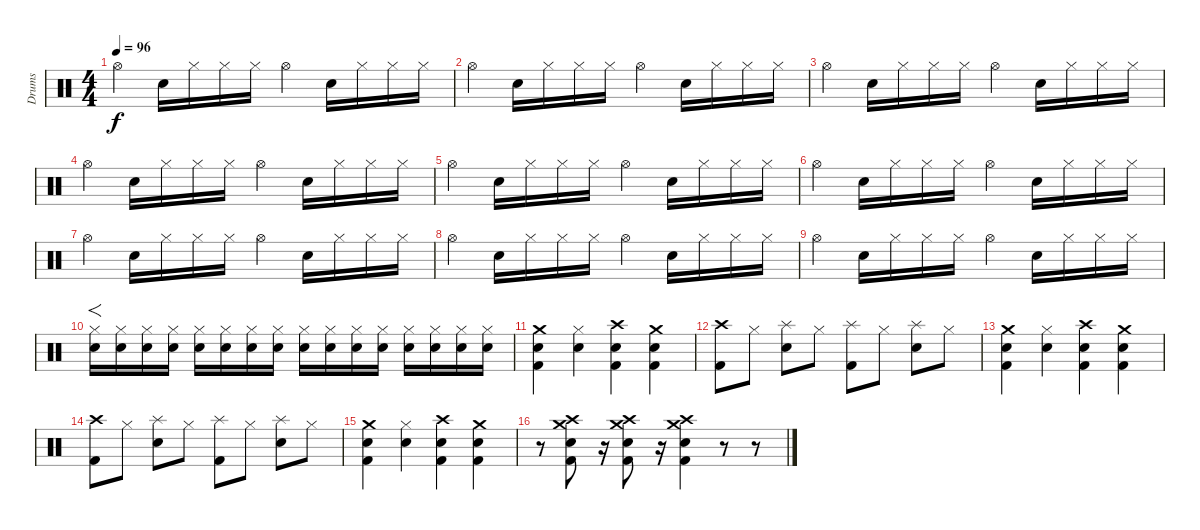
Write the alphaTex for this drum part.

\track ("Drums" "Drums") {instrument percussion}
\staff {score}
\articulation defaults
\ts (4 4)
\tempo 96
\clef neutral
\ks c "Hi-Hat (open)".4{dy f} "Snare (hit) 2".16 "Hi-Hat (closed)".16 "Hi-Hat (closed)".16 "Hi-Hat (closed)".16 "Hi-Hat (open)".4 "Snare (hit) 2".16 "Hi-Hat (closed)".16 "Hi-Hat (closed)".16 "Hi-Hat (closed)".16
|
"Hi-Hat (open)".4 "Snare (hit) 2".16 "Hi-Hat (closed)".16 "Hi-Hat (closed)".16 "Hi-Hat (closed)".16 "Hi-Hat (open)".4 "Snare (hit) 2".16 "Hi-Hat (closed)".16 "Hi-Hat (closed)".16 "Hi-Hat (closed)".16 |
"Hi-Hat (open)".4 "Snare (hit) 2".16 "Hi-Hat (closed)".16 "Hi-Hat (closed)".16 "Hi-Hat (closed)".16 "Hi-Hat (open)".4 "Snare (hit) 2".16 "Hi-Hat (closed)".16 "Hi-Hat (closed)".16 "Hi-Hat (closed)".16 |
"Hi-Hat (open)".4 "Snare (hit) 2".16 "Hi-Hat (closed)".16 "Hi-Hat (closed)".16 "Hi-Hat (closed)".16 "Hi-Hat (open)".4 "Snare (hit) 2".16 "Hi-Hat (closed)".16 "Hi-Hat (closed)".16 "Hi-Hat (closed)".16 |
"Hi-Hat (open)".4 "Snare (hit) 2".16 "Hi-Hat (closed)".16 "Hi-Hat (closed)".16 "Hi-Hat (closed)".16 "Hi-Hat (open)".4 "Snare (hit) 2".16 "Hi-Hat (closed)".16 "Hi-Hat (closed)".16 "Hi-Hat (closed)".16 |
"Hi-Hat (open)".4 "Snare (hit) 2".16 "Hi-Hat (closed)".16 "Hi-Hat (closed)".16 "Hi-Hat (closed)".16 "Hi-Hat (open)".4 "Snare (hit) 2".16 "Hi-Hat (closed)".16 "Hi-Hat (closed)".16 "Hi-Hat (closed)".16 |
"Hi-Hat (open)".4 "Snare (hit) 2".16 "Hi-Hat (closed)".16 "Hi-Hat (closed)".16 "Hi-Hat (closed)".16 "Hi-Hat (open)".4 "Snare (hit) 2".16 "Hi-Hat (closed)".16 "Hi-Hat (closed)".16 "Hi-Hat (closed)".16 |
"Hi-Hat (open)".4 "Snare (hit) 2".16 "Hi-Hat (closed)".16 "Hi-Hat (closed)".16 "Hi-Hat (closed)".16 "Hi-Hat (open)".4 "Snare (hit) 2".16 "Hi-Hat (closed)".16 "Hi-Hat (closed)".16 "Hi-Hat (closed)".16 |
"Hi-Hat (open)".4 "Snare (hit) 2".16 "Hi-Hat (closed)".16 "Hi-Hat (closed)".16 "Hi-Hat (closed)".16 "Hi-Hat (open)".4 "Snare (hit) 2".16 "Hi-Hat (closed)".16 "Hi-Hat (closed)".16 "Hi-Hat (closed)".16 |
("Hi-Hat (closed)" "Snare (hit) 2").16{f} ("Hi-Hat (closed)" "Snare (hit) 2").16 ("Hi-Hat (closed)" "Snare (hit) 2").16 ("Hi-Hat (closed)" "Snare (hit) 2").16 ("Hi-Hat (closed)" "Snare (hit) 2").16 ("Hi-Hat (closed)" "Snare (hit) 2").16 ("Hi-Hat (closed)" "Snare (hit) 2").16 ("Hi-Hat (closed)" "Snare (hit) 2").16 ("Hi-Hat (closed)" "Snare (hit) 2").16 ("Hi-Hat (closed)" "Snare (hit) 2").16 ("Hi-Hat (closed)" "Snare (hit) 2").16 ("Hi-Hat (closed)" "Snare (hit) 2").16 ("Hi-Hat (closed)" "Snare (hit) 2").16 ("Hi-Hat (closed)" "Snare (hit) 2").16 ("Hi-Hat (closed)" "Snare (hit) 2").16 ("Hi-Hat (closed)" "Snare (hit) 2").16 |
("Snare (hit) 2" "Kick (hit) 2" "Crash medium (hit)").4 ("Snare (hit) 2" "Hi-Hat (closed)").4 ("Snare (hit) 2" "Kick (hit) 2" "Crash high (hit)").4 ("Snare (hit) 2" "Kick (hit) 2" "Crash medium (hit)").4 |
("Kick (hit) 2" "Crash high (hit)").8 "Hi-Hat (closed)".8 ("Snare (hit) 2" "Splash (hit)").8 "Hi-Hat (closed)".8 ("Kick (hit) 2" "Splash (hit)").8 "Hi-Hat (closed)".8 ("Snare (hit) 2" "Splash (hit)").8 "Hi-Hat (closed)".8 |
("Snare (hit) 2" "Kick (hit) 2" "Crash medium (hit)").4 ("Snare (hit) 2" "Hi-Hat (closed)").4 ("Snare (hit) 2" "Kick (hit) 2" "Crash high (hit)").4 ("Snare (hit) 2" "Kick (hit) 2" "Crash medium (hit)").4 |
("Kick (hit) 2" "Crash high (hit)").8 "Hi-Hat (closed)".8 ("Snare (hit) 2" "Splash (hit)").8 "Hi-Hat (closed)".8 ("Kick (hit) 2" "Splash (hit)").8 "Hi-Hat (closed)".8 ("Snare (hit) 2" "Splash (hit)").8 "Hi-Hat (closed)".8 |
("Snare (hit) 2" "Kick (hit) 2" "Crash medium (hit)").4 ("Snare (hit) 2" "Hi-Hat (closed)").4 ("Snare (hit) 2" "Kick (hit) 2" "Crash high (hit)").4 ("Snare (hit) 2" "Kick (hit) 2" "Crash medium (hit)").4 |
r.8 ("Snare (hit) 2" "Kick (hit) 2" "Crash high (hit)" "Crash medium (hit)").8 r.16 ("Snare (hit) 2" "Kick (hit) 2" "Crash high (hit)" "Crash medium (hit)").8 r.16 ("Snare (hit) 2" "Kick (hit) 2" "Crash high (hit)" "Crash medium (hit)").4 r.8 r.8
